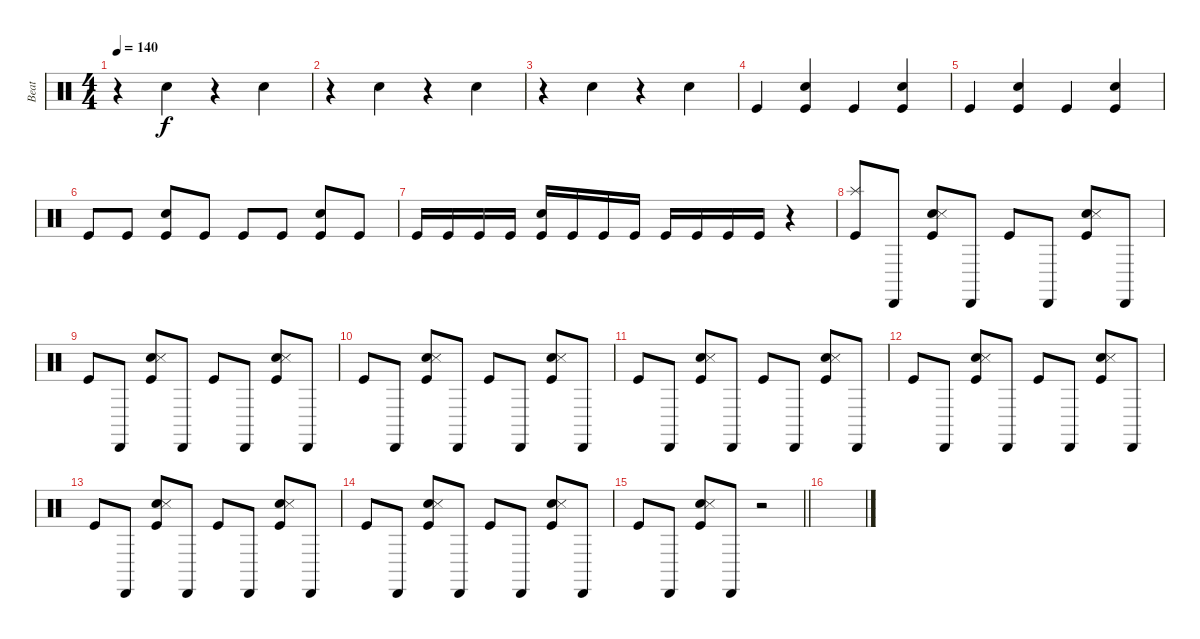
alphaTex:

\track ("Beat" "Beat") {instrument percussion}
\staff {score}
\articulation defaults
\ts (4 4)
\tempo 140
\clef neutral
\ks c
r.4{dy f volume 4} "Hand Clap (hit)".4{volume 14} r.4 "Hand Clap (hit)".4 |
r.4 "Hand Clap (hit)".4 r.4 "Hand Clap (hit)".4 |
r.4 "Hand Clap (hit)".4 r.4 "Hand Clap (hit)".4 |
"Kick (hit)".4 ("Kick (hit)" "Hand Clap (hit)").4 "Kick (hit)".4 ("Kick (hit)" "Hand Clap (hit)").4 |
"Kick (hit)".4 ("Kick (hit)" "Hand Clap (hit)").4 "Kick (hit)".4 ("Kick (hit)" "Hand Clap (hit)").4 |
"Kick (hit)".8 "Kick (hit)".8 ("Kick (hit)" "Hand Clap (hit)").8 "Kick (hit)".8 "Kick (hit)".8 "Kick (hit)".8 ("Kick (hit)" "Hand Clap (hit)").8 "Kick (hit)".8 |
"Kick (hit)".16 "Kick (hit)".16 "Kick (hit)".16 "Kick (hit)".16 ("Kick (hit)" "Hand Clap (hit)").16 "Kick (hit)".16 "Kick (hit)".16 "Kick (hit)".16 "Kick (hit)".16 "Kick (hit)".16 "Kick (hit)".16 "Kick (hit)".16 r.4 |
("Kick (hit)" "Splash (hit)").8 "Cabasa (hit)".8 ("Kick (hit)" "Hand Clap (hit)" "Snare (side stick) 3").8 "Cabasa (hit)".8 "Kick (hit)".8 "Cabasa (hit)".8 ("Kick (hit)" "Hand Clap (hit)" "Snare (side stick) 3").8 "Cabasa (hit)".8 |
"Kick (hit)".8 "Cabasa (hit)".8 ("Kick (hit)" "Hand Clap (hit)" "Snare (side stick) 3").8 "Cabasa (hit)".8 "Kick (hit)".8 "Cabasa (hit)".8 ("Kick (hit)" "Hand Clap (hit)" "Snare (side stick) 3").8 "Cabasa (hit)".8 |
"Kick (hit)".8 "Cabasa (hit)".8 ("Kick (hit)" "Hand Clap (hit)" "Snare (side stick) 3").8 "Cabasa (hit)".8 "Kick (hit)".8 "Cabasa (hit)".8 ("Kick (hit)" "Hand Clap (hit)" "Snare (side stick) 3").8 "Cabasa (hit)".8 |
"Kick (hit)".8 "Cabasa (hit)".8 ("Kick (hit)" "Hand Clap (hit)" "Snare (side stick) 3").8 "Cabasa (hit)".8 "Kick (hit)".8 "Cabasa (hit)".8 ("Kick (hit)" "Hand Clap (hit)" "Snare (side stick) 3").8 "Cabasa (hit)".8 |
"Kick (hit)".8 "Cabasa (hit)".8 ("Kick (hit)" "Hand Clap (hit)" "Snare (side stick) 3").8 "Cabasa (hit)".8 "Kick (hit)".8 "Cabasa (hit)".8 ("Kick (hit)" "Hand Clap (hit)" "Snare (side stick) 3").8 "Cabasa (hit)".8 |
"Kick (hit)".8 "Cabasa (hit)".8 ("Kick (hit)" "Hand Clap (hit)" "Snare (side stick) 3").8 "Cabasa (hit)".8 "Kick (hit)".8 "Cabasa (hit)".8 ("Kick (hit)" "Hand Clap (hit)" "Snare (side stick) 3").8 "Cabasa (hit)".8 |
"Kick (hit)".8 "Cabasa (hit)".8 ("Kick (hit)" "Hand Clap (hit)" "Snare (side stick) 3").8 "Cabasa (hit)".8 "Kick (hit)".8 "Cabasa (hit)".8 ("Kick (hit)" "Hand Clap (hit)" "Snare (side stick) 3").8 "Cabasa (hit)".8 |
\barLineRight lightlight "Kick (hit)".8 "Cabasa (hit)".8
("Kick (hit)" "Hand Clap (hit)" "Snare (side stick) 3").8 "Cabasa (hit)".8 r.2 |
\section ("" " ")
